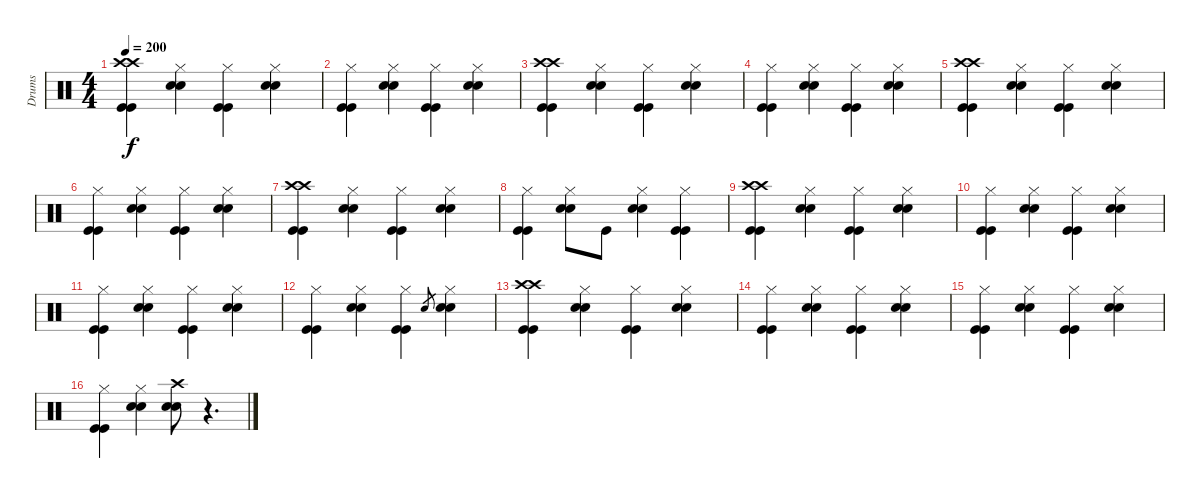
\track ("Drums" "Drums") {instrument percussion}
\staff {score}
\articulation defaults
\ts (4 4)
\tempo 200
\clef neutral
\ks c
("Crash high (hit)" "Crash high (hit)" "Kick (hit)" "Kick (hit)").4{dy f} ("Hi-Hat (closed)" "Electric Snare (hit)" "Electric Snare (hit)").4 ("Hi-Hat (closed)" "Kick (hit)" "Kick (hit)").4 ("Hi-Hat (closed)" "Electric Snare (hit)" "Electric Snare (hit)").4 |
("Hi-Hat (closed)" "Kick (hit)" "Kick (hit)").4 ("Hi-Hat (closed)" "Electric Snare (hit)" "Electric Snare (hit)").4 ("Hi-Hat (closed)" "Kick (hit)" "Kick (hit)").4 ("Hi-Hat (closed)" "Electric Snare (hit)" "Electric Snare (hit)").4 |
("Crash high (hit)" "Crash high (hit)" "Kick (hit)" "Kick (hit)").4 ("Hi-Hat (closed)" "Electric Snare (hit)" "Electric Snare (hit)").4 ("Hi-Hat (closed)" "Kick (hit)" "Kick (hit)").4 ("Hi-Hat (closed)" "Electric Snare (hit)" "Electric Snare (hit)").4 |
("Hi-Hat (closed)" "Kick (hit)" "Kick (hit)").4 ("Hi-Hat (closed)" "Electric Snare (hit)" "Electric Snare (hit)").4 ("Hi-Hat (closed)" "Kick (hit)" "Kick (hit)").4 ("Hi-Hat (closed)" "Electric Snare (hit)" "Electric Snare (hit)").4 |
("Crash high (hit)" "Crash high (hit)" "Kick (hit)" "Kick (hit)").4 ("Hi-Hat (closed)" "Electric Snare (hit)" "Electric Snare (hit)").4 ("Hi-Hat (closed)" "Kick (hit)" "Kick (hit)").4 ("Hi-Hat (closed)" "Electric Snare (hit)" "Electric Snare (hit)").4 |
("Hi-Hat (closed)" "Kick (hit)" "Kick (hit)").4 ("Hi-Hat (closed)" "Electric Snare (hit)" "Electric Snare (hit)").4 ("Hi-Hat (closed)" "Kick (hit)" "Kick (hit)").4 ("Hi-Hat (closed)" "Electric Snare (hit)" "Electric Snare (hit)").4 |
("Crash high (hit)" "Crash high (hit)" "Kick (hit)" "Kick (hit)").4 ("Hi-Hat (closed)" "Electric Snare (hit)" "Electric Snare (hit)").4 ("Hi-Hat (closed)" "Kick (hit)" "Kick (hit)").4 ("Hi-Hat (closed)" "Electric Snare (hit)" "Electric Snare (hit)").4 |
("Hi-Hat (closed)" "Kick (hit)" "Kick (hit)").4 ("Hi-Hat (closed)" "Electric Snare (hit)" "Electric Snare (hit)").8 "Kick (hit)".8 ("Hi-Hat (closed)" "Electric Snare (hit)" "Electric Snare (hit)").4 ("Hi-Hat (closed)" "Kick (hit)" "Kick (hit)").4 |
("Crash high (hit)" "Crash high (hit)" "Kick (hit)" "Kick (hit)").4 ("Hi-Hat (closed)" "Electric Snare (hit)" "Electric Snare (hit)").4 ("Hi-Hat (closed)" "Kick (hit)" "Kick (hit)").4 ("Hi-Hat (closed)" "Electric Snare (hit)" "Electric Snare (hit)").4 |
("Hi-Hat (closed)" "Kick (hit)" "Kick (hit)").4 ("Hi-Hat (closed)" "Electric Snare (hit)" "Electric Snare (hit)").4 ("Hi-Hat (closed)" "Kick (hit)" "Kick (hit)").4 ("Hi-Hat (closed)" "Electric Snare (hit)" "Electric Snare (hit)").4 |
("Hi-Hat (closed)" "Kick (hit)" "Kick (hit)").4 ("Hi-Hat (closed)" "Electric Snare (hit)" "Electric Snare (hit)").4 ("Hi-Hat (closed)" "Kick (hit)" "Kick (hit)").4 ("Hi-Hat (closed)" "Electric Snare (hit)" "Electric Snare (hit)").4 |
("Hi-Hat (closed)" "Kick (hit)" "Kick (hit)").4 ("Hi-Hat (closed)" "Electric Snare (hit)" "Electric Snare (hit)").4 ("Hi-Hat (closed)" "Kick (hit)" "Kick (hit)").4 "Electric Snare (hit)".8{gr} ("Hi-Hat (closed)" "Electric Snare (hit)" "Electric Snare (hit)").4 |
("Crash high (hit)" "Crash high (hit)" "Kick (hit)" "Kick (hit)").4 ("Hi-Hat (closed)" "Electric Snare (hit)" "Electric Snare (hit)").4 ("Hi-Hat (closed)" "Kick (hit)" "Kick (hit)").4 ("Hi-Hat (closed)" "Electric Snare (hit)" "Electric Snare (hit)").4 |
("Hi-Hat (closed)" "Kick (hit)" "Kick (hit)").4 ("Hi-Hat (closed)" "Electric Snare (hit)" "Electric Snare (hit)").4 ("Hi-Hat (closed)" "Kick (hit)" "Kick (hit)").4 ("Hi-Hat (closed)" "Electric Snare (hit)" "Electric Snare (hit)").4 |
("Hi-Hat (closed)" "Kick (hit)" "Kick (hit)").4 ("Hi-Hat (closed)" "Electric Snare (hit)" "Electric Snare (hit)").4 ("Hi-Hat (closed)" "Kick (hit)" "Kick (hit)").4 ("Hi-Hat (closed)" "Electric Snare (hit)" "Electric Snare (hit)").4 |
("Hi-Hat (closed)" "Kick (hit)" "Kick (hit)").4 ("Hi-Hat (closed)" "Electric Snare (hit)" "Electric Snare (hit)").4 ("Crash high (hit)" "Electric Snare (hit)" "Electric Snare (hit)").8 r.4{d}
